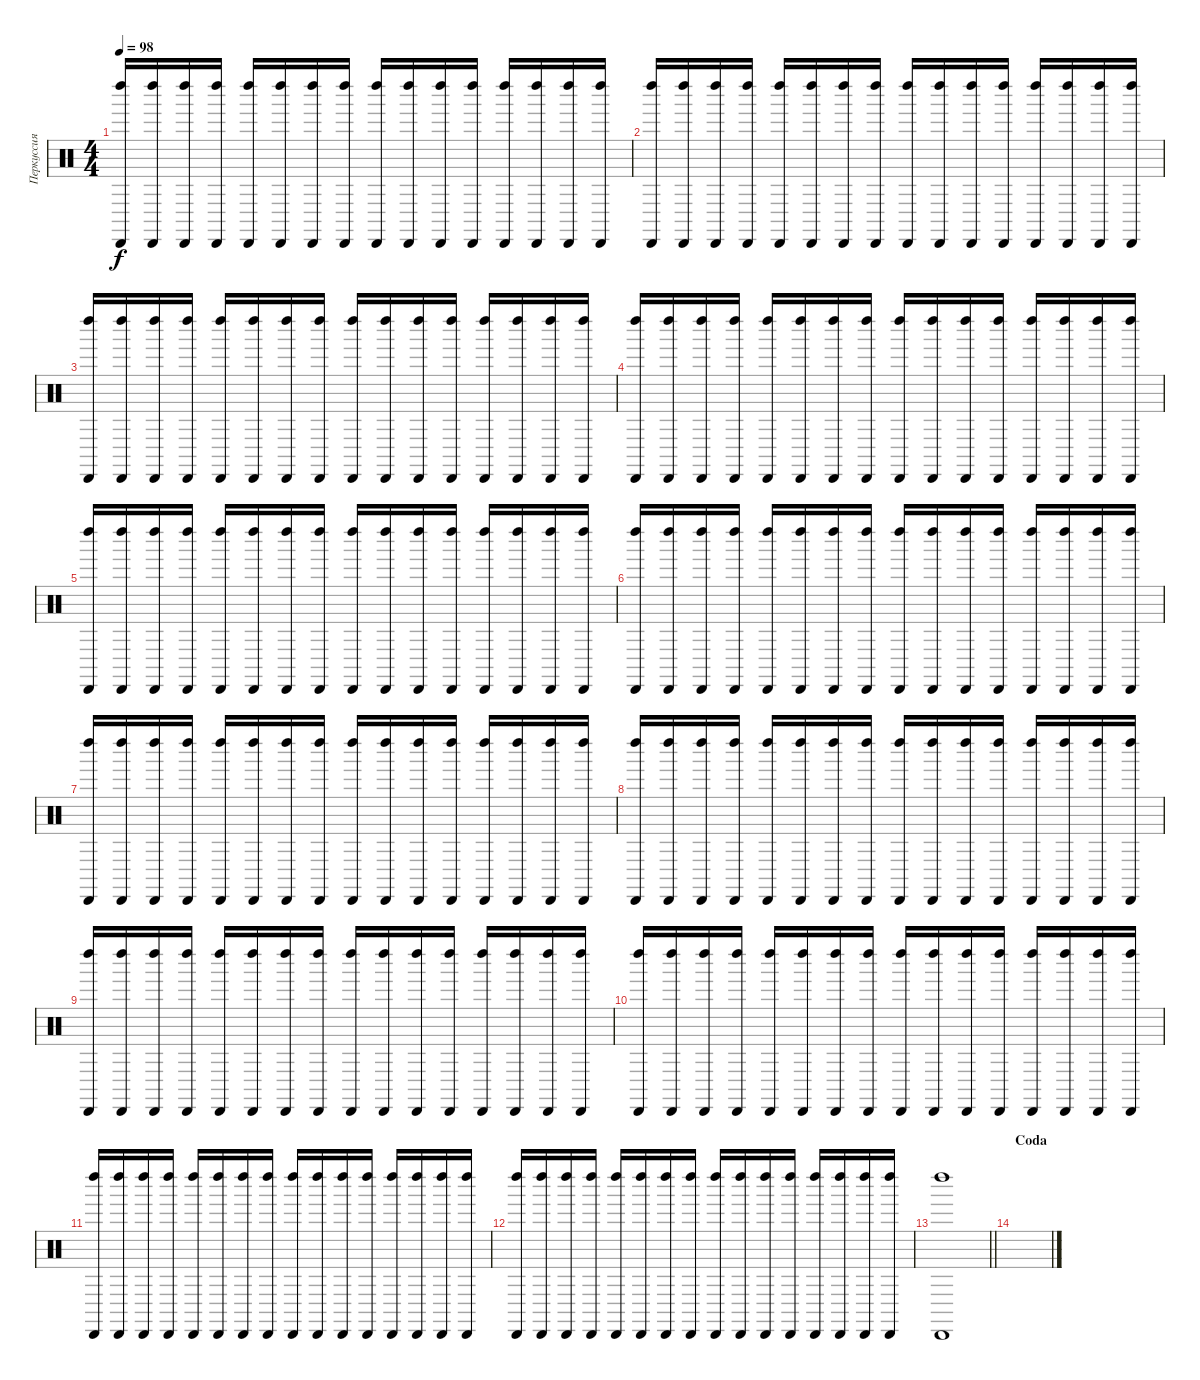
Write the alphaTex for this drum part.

\track ("Перкуссия" "Перкуссия") {instrument percussion}
\staff {score}
\articulation defaults
\ts (4 4)
\tempo 98
\clef neutral
\ks c
("Cabasa (hit)" "Left Maraca (hit)").16{dy f} ("Cabasa (hit)" "Left Maraca (hit)").16 ("Cabasa (hit)" "Left Maraca (hit)").16 ("Cabasa (hit)" "Left Maraca (hit)").16 ("Cabasa (hit)" "Left Maraca (hit)").16 ("Cabasa (hit)" "Left Maraca (hit)").16 ("Cabasa (hit)" "Left Maraca (hit)").16 ("Cabasa (hit)" "Left Maraca (hit)").16 ("Cabasa (hit)" "Left Maraca (hit)").16 ("Cabasa (hit)" "Left Maraca (hit)").16 ("Cabasa (hit)" "Left Maraca (hit)").16 ("Cabasa (hit)" "Left Maraca (hit)").16 ("Cabasa (hit)" "Left Maraca (hit)").16 ("Cabasa (hit)" "Left Maraca (hit)").16 ("Cabasa (hit)" "Left Maraca (hit)").16 ("Cabasa (hit)" "Left Maraca (hit)").16 |
("Cabasa (hit)" "Left Maraca (hit)").16 ("Cabasa (hit)" "Left Maraca (hit)").16 ("Cabasa (hit)" "Left Maraca (hit)").16 ("Cabasa (hit)" "Left Maraca (hit)").16 ("Cabasa (hit)" "Left Maraca (hit)").16 ("Cabasa (hit)" "Left Maraca (hit)").16 ("Cabasa (hit)" "Left Maraca (hit)").16 ("Cabasa (hit)" "Left Maraca (hit)").16 ("Cabasa (hit)" "Left Maraca (hit)").16 ("Cabasa (hit)" "Left Maraca (hit)").16 ("Cabasa (hit)" "Left Maraca (hit)").16 ("Cabasa (hit)" "Left Maraca (hit)").16 ("Cabasa (hit)" "Left Maraca (hit)").16 ("Cabasa (hit)" "Left Maraca (hit)").16 ("Cabasa (hit)" "Left Maraca (hit)").16 ("Cabasa (hit)" "Left Maraca (hit)").16 |
("Cabasa (hit)" "Left Maraca (hit)").16 ("Cabasa (hit)" "Left Maraca (hit)").16 ("Cabasa (hit)" "Left Maraca (hit)").16 ("Cabasa (hit)" "Left Maraca (hit)").16 ("Cabasa (hit)" "Left Maraca (hit)").16 ("Cabasa (hit)" "Left Maraca (hit)").16 ("Cabasa (hit)" "Left Maraca (hit)").16 ("Cabasa (hit)" "Left Maraca (hit)").16 ("Cabasa (hit)" "Left Maraca (hit)").16 ("Cabasa (hit)" "Left Maraca (hit)").16 ("Cabasa (hit)" "Left Maraca (hit)").16 ("Cabasa (hit)" "Left Maraca (hit)").16 ("Cabasa (hit)" "Left Maraca (hit)").16 ("Cabasa (hit)" "Left Maraca (hit)").16 ("Cabasa (hit)" "Left Maraca (hit)").16 ("Cabasa (hit)" "Left Maraca (hit)").16 |
("Cabasa (hit)" "Left Maraca (hit)").16 ("Cabasa (hit)" "Left Maraca (hit)").16 ("Cabasa (hit)" "Left Maraca (hit)").16 ("Cabasa (hit)" "Left Maraca (hit)").16 ("Cabasa (hit)" "Left Maraca (hit)").16 ("Cabasa (hit)" "Left Maraca (hit)").16 ("Cabasa (hit)" "Left Maraca (hit)").16 ("Cabasa (hit)" "Left Maraca (hit)").16 ("Cabasa (hit)" "Left Maraca (hit)").16 ("Cabasa (hit)" "Left Maraca (hit)").16 ("Cabasa (hit)" "Left Maraca (hit)").16 ("Cabasa (hit)" "Left Maraca (hit)").16 ("Cabasa (hit)" "Left Maraca (hit)").16 ("Cabasa (hit)" "Left Maraca (hit)").16 ("Cabasa (hit)" "Left Maraca (hit)").16 ("Cabasa (hit)" "Left Maraca (hit)").16 |
("Cabasa (hit)" "Left Maraca (hit)").16 ("Cabasa (hit)" "Left Maraca (hit)").16 ("Cabasa (hit)" "Left Maraca (hit)").16 ("Cabasa (hit)" "Left Maraca (hit)").16 ("Cabasa (hit)" "Left Maraca (hit)").16 ("Cabasa (hit)" "Left Maraca (hit)").16 ("Cabasa (hit)" "Left Maraca (hit)").16 ("Cabasa (hit)" "Left Maraca (hit)").16 ("Cabasa (hit)" "Left Maraca (hit)").16 ("Cabasa (hit)" "Left Maraca (hit)").16 ("Cabasa (hit)" "Left Maraca (hit)").16 ("Cabasa (hit)" "Left Maraca (hit)").16 ("Cabasa (hit)" "Left Maraca (hit)").16 ("Cabasa (hit)" "Left Maraca (hit)").16 ("Cabasa (hit)" "Left Maraca (hit)").16 ("Cabasa (hit)" "Left Maraca (hit)").16 |
("Cabasa (hit)" "Left Maraca (hit)").16 ("Cabasa (hit)" "Left Maraca (hit)").16 ("Cabasa (hit)" "Left Maraca (hit)").16 ("Cabasa (hit)" "Left Maraca (hit)").16 ("Cabasa (hit)" "Left Maraca (hit)").16 ("Cabasa (hit)" "Left Maraca (hit)").16 ("Cabasa (hit)" "Left Maraca (hit)").16 ("Cabasa (hit)" "Left Maraca (hit)").16 ("Cabasa (hit)" "Left Maraca (hit)").16 ("Cabasa (hit)" "Left Maraca (hit)").16 ("Cabasa (hit)" "Left Maraca (hit)").16 ("Cabasa (hit)" "Left Maraca (hit)").16 ("Cabasa (hit)" "Left Maraca (hit)").16 ("Cabasa (hit)" "Left Maraca (hit)").16 ("Cabasa (hit)" "Left Maraca (hit)").16 ("Cabasa (hit)" "Left Maraca (hit)").16 |
("Cabasa (hit)" "Left Maraca (hit)").16 ("Cabasa (hit)" "Left Maraca (hit)").16 ("Cabasa (hit)" "Left Maraca (hit)").16 ("Cabasa (hit)" "Left Maraca (hit)").16 ("Cabasa (hit)" "Left Maraca (hit)").16 ("Cabasa (hit)" "Left Maraca (hit)").16 ("Cabasa (hit)" "Left Maraca (hit)").16 ("Cabasa (hit)" "Left Maraca (hit)").16 ("Cabasa (hit)" "Left Maraca (hit)").16 ("Cabasa (hit)" "Left Maraca (hit)").16 ("Cabasa (hit)" "Left Maraca (hit)").16 ("Cabasa (hit)" "Left Maraca (hit)").16 ("Cabasa (hit)" "Left Maraca (hit)").16 ("Cabasa (hit)" "Left Maraca (hit)").16 ("Cabasa (hit)" "Left Maraca (hit)").16 ("Cabasa (hit)" "Left Maraca (hit)").16 |
("Cabasa (hit)" "Left Maraca (hit)").16 ("Cabasa (hit)" "Left Maraca (hit)").16 ("Cabasa (hit)" "Left Maraca (hit)").16 ("Cabasa (hit)" "Left Maraca (hit)").16 ("Cabasa (hit)" "Left Maraca (hit)").16 ("Cabasa (hit)" "Left Maraca (hit)").16 ("Cabasa (hit)" "Left Maraca (hit)").16 ("Cabasa (hit)" "Left Maraca (hit)").16 ("Cabasa (hit)" "Left Maraca (hit)").16 ("Cabasa (hit)" "Left Maraca (hit)").16 ("Cabasa (hit)" "Left Maraca (hit)").16 ("Cabasa (hit)" "Left Maraca (hit)").16 ("Cabasa (hit)" "Left Maraca (hit)").16 ("Cabasa (hit)" "Left Maraca (hit)").16 ("Cabasa (hit)" "Left Maraca (hit)").16 ("Cabasa (hit)" "Left Maraca (hit)").16 |
("Cabasa (hit)" "Left Maraca (hit)").16 ("Cabasa (hit)" "Left Maraca (hit)").16 ("Cabasa (hit)" "Left Maraca (hit)").16 ("Cabasa (hit)" "Left Maraca (hit)").16 ("Cabasa (hit)" "Left Maraca (hit)").16 ("Cabasa (hit)" "Left Maraca (hit)").16 ("Cabasa (hit)" "Left Maraca (hit)").16 ("Cabasa (hit)" "Left Maraca (hit)").16 ("Cabasa (hit)" "Left Maraca (hit)").16 ("Cabasa (hit)" "Left Maraca (hit)").16 ("Cabasa (hit)" "Left Maraca (hit)").16 ("Cabasa (hit)" "Left Maraca (hit)").16 ("Cabasa (hit)" "Left Maraca (hit)").16 ("Cabasa (hit)" "Left Maraca (hit)").16 ("Cabasa (hit)" "Left Maraca (hit)").16 ("Cabasa (hit)" "Left Maraca (hit)").16 |
("Cabasa (hit)" "Left Maraca (hit)").16 ("Cabasa (hit)" "Left Maraca (hit)").16 ("Cabasa (hit)" "Left Maraca (hit)").16 ("Cabasa (hit)" "Left Maraca (hit)").16 ("Cabasa (hit)" "Left Maraca (hit)").16 ("Cabasa (hit)" "Left Maraca (hit)").16 ("Cabasa (hit)" "Left Maraca (hit)").16 ("Cabasa (hit)" "Left Maraca (hit)").16 ("Cabasa (hit)" "Left Maraca (hit)").16 ("Cabasa (hit)" "Left Maraca (hit)").16 ("Cabasa (hit)" "Left Maraca (hit)").16 ("Cabasa (hit)" "Left Maraca (hit)").16 ("Cabasa (hit)" "Left Maraca (hit)").16 ("Cabasa (hit)" "Left Maraca (hit)").16 ("Cabasa (hit)" "Left Maraca (hit)").16 ("Cabasa (hit)" "Left Maraca (hit)").16 |
("Cabasa (hit)" "Left Maraca (hit)").16 ("Cabasa (hit)" "Left Maraca (hit)").16 ("Cabasa (hit)" "Left Maraca (hit)").16 ("Cabasa (hit)" "Left Maraca (hit)").16 ("Cabasa (hit)" "Left Maraca (hit)").16 ("Cabasa (hit)" "Left Maraca (hit)").16 ("Cabasa (hit)" "Left Maraca (hit)").16 ("Cabasa (hit)" "Left Maraca (hit)").16 ("Cabasa (hit)" "Left Maraca (hit)").16 ("Cabasa (hit)" "Left Maraca (hit)").16 ("Cabasa (hit)" "Left Maraca (hit)").16 ("Cabasa (hit)" "Left Maraca (hit)").16 ("Cabasa (hit)" "Left Maraca (hit)").16 ("Cabasa (hit)" "Left Maraca (hit)").16 ("Cabasa (hit)" "Left Maraca (hit)").16 ("Cabasa (hit)" "Left Maraca (hit)").16 |
("Cabasa (hit)" "Left Maraca (hit)").16 ("Cabasa (hit)" "Left Maraca (hit)").16 ("Cabasa (hit)" "Left Maraca (hit)").16 ("Cabasa (hit)" "Left Maraca (hit)").16 ("Cabasa (hit)" "Left Maraca (hit)").16 ("Cabasa (hit)" "Left Maraca (hit)").16 ("Cabasa (hit)" "Left Maraca (hit)").16 ("Cabasa (hit)" "Left Maraca (hit)").16 ("Cabasa (hit)" "Left Maraca (hit)").16 ("Cabasa (hit)" "Left Maraca (hit)").16 ("Cabasa (hit)" "Left Maraca (hit)").16 ("Cabasa (hit)" "Left Maraca (hit)").16 ("Cabasa (hit)" "Left Maraca (hit)").16 ("Cabasa (hit)" "Left Maraca (hit)").16 ("Cabasa (hit)" "Left Maraca (hit)").16 ("Cabasa (hit)" "Left Maraca (hit)").16 |
\barLineRight lightlight
("Cabasa (hit)" "Left Maraca (hit)").1 |
\section ("" "Coda")
